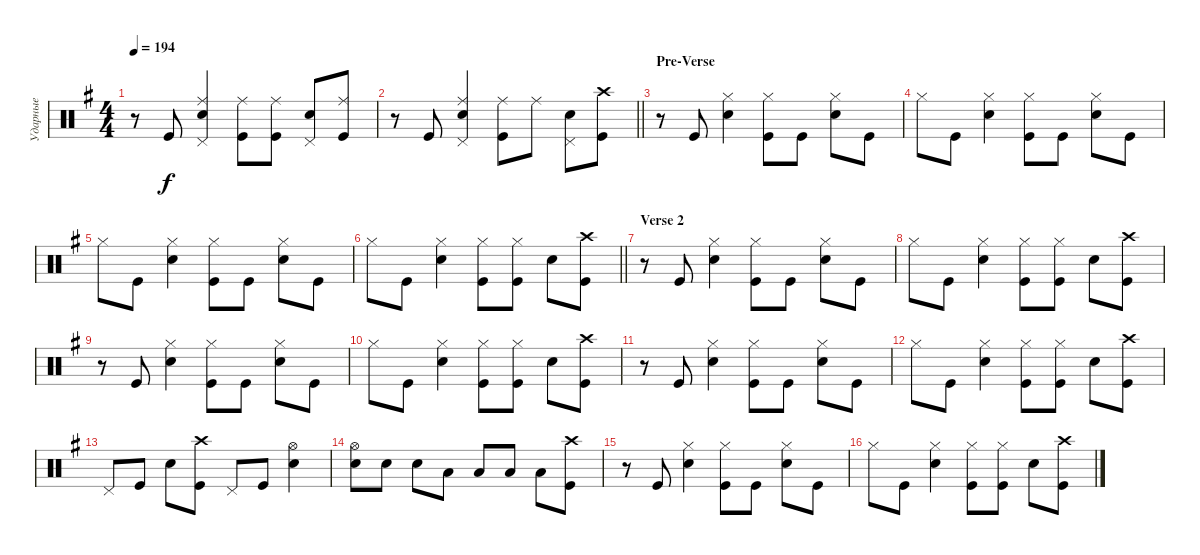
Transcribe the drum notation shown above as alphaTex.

\track ("Ударные" "Ударные") {instrument percussion}
\staff {score}
\articulation defaults
\ts (4 4)
\tempo 194
\clef neutral
\ks eminor
r.8{dy f} "Kick (hit)".8 ("Snare (hit) 2" "Ride (middle)" "Pedal Hi-Hat (hit)").4 ("Kick (hit)" "Ride (middle)").8 ("Kick (hit)" "Ride (middle)").8 ("Snare (hit) 2" "Pedal Hi-Hat (hit)").8 ("Ride (middle)" "Kick (hit)").8 |
\barLineRight lightlight
r.8 "Kick (hit)".8 ("Snare (hit) 2" "Ride (middle)" "Pedal Hi-Hat (hit)").4 ("Kick (hit)" "Ride (middle)").8 "Ride (middle)".8 ("Snare (hit) 2" "Pedal Hi-Hat (hit)").8 ("Crash high (hit)" "Kick (hit)").8 |
\section ("" "Pre-Verse")
r.8 "Kick (hit)".8 ("Snare (hit) 2" "Hi-Hat (closed)").4 ("Kick (hit)" "Hi-Hat (closed)").8 "Kick (hit)".8 ("Snare (hit) 2" "Hi-Hat (closed)").8 "Kick (hit)".8 |
"Hi-Hat (closed)".8 "Kick (hit)".8 ("Snare (hit) 2" "Hi-Hat (closed)").4 ("Kick (hit)" "Hi-Hat (closed)").8 "Kick (hit)".8 ("Snare (hit) 2" "Hi-Hat (closed)").8 "Kick (hit)".8 |
"Hi-Hat (closed)".8 "Kick (hit)".8 ("Snare (hit) 2" "Hi-Hat (closed)").4 ("Kick (hit)" "Hi-Hat (closed)").8 "Kick (hit)".8 ("Snare (hit) 2" "Hi-Hat (closed)").8 "Kick (hit)".8 |
\barLineRight lightlight "Hi-Hat (closed)".8 "Kick (hit)".8
("Snare (hit) 2" "Hi-Hat (closed)").4 ("Kick (hit)" "Hi-Hat (closed)").8 ("Kick (hit)" "Hi-Hat (closed)").8 "Snare (hit) 2".8 ("Kick (hit)" "Crash high (hit)").8 |
\section ("" "Verse 2")
r.8 "Kick (hit)".8 ("Snare (hit) 2" "Hi-Hat (closed)").4 ("Kick (hit)" "Hi-Hat (closed)").8 "Kick (hit)".8 ("Snare (hit) 2" "Hi-Hat (closed)").8 "Kick (hit)".8 |
"Hi-Hat (closed)".8 "Kick (hit)".8 ("Snare (hit) 2" "Hi-Hat (closed)").4 ("Kick (hit)" "Hi-Hat (closed)").8 ("Kick (hit)" "Hi-Hat (closed)").8 "Snare (hit) 2".8 ("Kick (hit)" "Crash high (hit)").8 |
r.8 "Kick (hit)".8 ("Snare (hit) 2" "Hi-Hat (closed)").4 ("Kick (hit)" "Hi-Hat (closed)").8 "Kick (hit)".8 ("Snare (hit) 2" "Hi-Hat (closed)").8 "Kick (hit)".8 |
"Hi-Hat (closed)".8 "Kick (hit)".8 ("Snare (hit) 2" "Hi-Hat (closed)").4 ("Kick (hit)" "Hi-Hat (closed)").8 ("Kick (hit)" "Hi-Hat (closed)").8 "Snare (hit) 2".8 ("Kick (hit)" "Crash high (hit)").8 |
r.8 "Kick (hit)".8 ("Snare (hit) 2" "Hi-Hat (closed)").4 ("Kick (hit)" "Hi-Hat (closed)").8 "Kick (hit)".8 ("Snare (hit) 2" "Hi-Hat (closed)").8 "Kick (hit)".8 |
"Hi-Hat (closed)".8 "Kick (hit)".8 ("Snare (hit) 2" "Hi-Hat (closed)").4 ("Kick (hit)" "Hi-Hat (closed)").8 ("Kick (hit)" "Hi-Hat (closed)").8 "Snare (hit) 2".8 ("Kick (hit)" "Crash high (hit)").8 |
"Pedal Hi-Hat (hit)".8 "Kick (hit)".8 "Snare (hit) 2".8 ("Kick (hit)" "Crash high (hit)").8 "Pedal Hi-Hat (hit)".8 "Kick (hit)".8 ("Snare (hit) 2" "Hi-Hat (open)").4 |
("Snare (hit) 2" "Hi-Hat (open)").8 "Snare (hit) 2".8 "Snare (hit) 2".8 "Low Tom (hit)".8 "Low Tom (hit)".8 "Low Tom (hit)".8 "Low Tom (hit)".8 ("Kick (hit)" "Crash high (hit)").8 |
r.8 "Kick (hit)".8 ("Snare (hit) 2" "Hi-Hat (closed)").4 ("Kick (hit)" "Hi-Hat (closed)").8 "Kick (hit)".8 ("Snare (hit) 2" "Hi-Hat (closed)").8 "Kick (hit)".8 |
"Hi-Hat (closed)".8 "Kick (hit)".8 ("Snare (hit) 2" "Hi-Hat (closed)").4 ("Kick (hit)" "Hi-Hat (closed)").8 ("Kick (hit)" "Hi-Hat (closed)").8 "Snare (hit) 2".8 ("Kick (hit)" "Crash high (hit)").8
